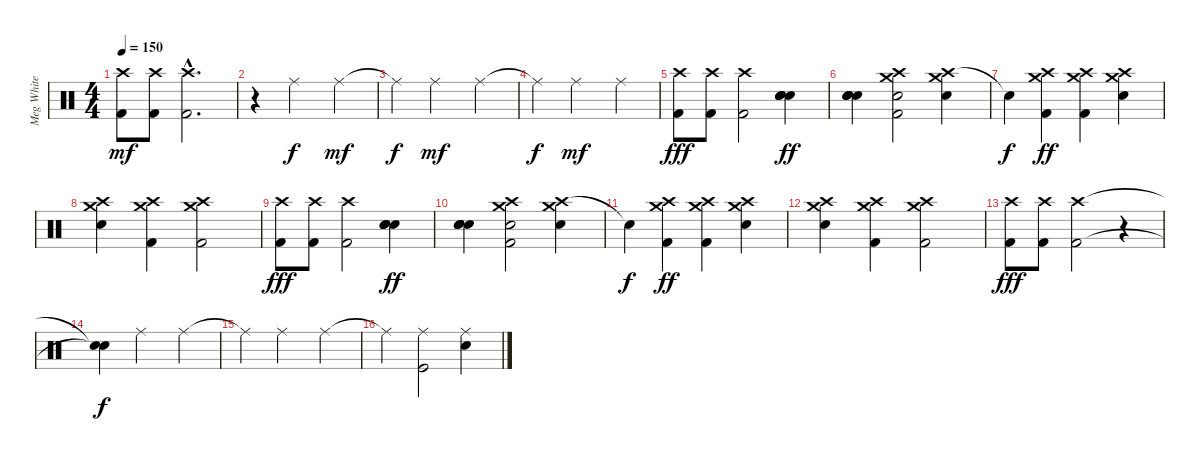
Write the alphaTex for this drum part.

\track ("Meg White" "Meg White") {instrument percussion}
\staff {score}
\articulation defaults
\ts (4 4)
\tempo 150
\clef neutral
\ks c
("Crash high (hit)" "Kick (hit) 2").8{dy mf} ("Crash high (hit)" "Kick (hit) 2").8 ("Crash high (hit)"{hac} "Kick (hit) 2"{hac}).2{d} |
r.4 "Ride (middle)".2{dy f} "Ride (middle)".4{dy mf} |
"Ride (middle)"{t}.4{dy f} "Ride (middle)".2{dy mf} "Ride (middle)".4 |
"Ride (middle)"{t}.4{dy f} "Ride (middle)".2{dy mf} "Ride (middle)".4 |
("Crash high (hit)" "Kick (hit) 2").8{dy fff} ("Crash high (hit)" "Kick (hit) 2").8 ("Crash high (hit)" "Kick (hit) 2").2 ("Snare (hit) 2" "Snare (hit) 2" "Electric Snare (hit)" "Electric Snare (hit)").4{dy ff} |
("Snare (hit) 2" "Snare (hit) 2" "Electric Snare (hit)" "Electric Snare (hit)").4 ("Crash high (hit)" "Crash medium (hit)" "Kick (hit) 2" "Electric Snare (hit)").2 ("Crash high (hit)" "Crash medium (hit)" "Electric Snare (hit)").4 |
"Snare (hit)"{t}.4{dy f} ("Crash high (hit)" "Crash medium (hit)" "Kick (hit) 2").4{dy ff} ("Crash high (hit)" "Crash medium (hit)" "Kick (hit) 2").4 ("Crash high (hit)" "Crash medium (hit)" "Electric Snare (hit)").4 |
("Crash high (hit)" "Crash medium (hit)" "Electric Snare (hit)").4 ("Crash high (hit)" "Crash medium (hit)" "Kick (hit) 2").4 ("Crash high (hit)" "Crash medium (hit)" "Kick (hit) 2").2 |
("Crash high (hit)" "Kick (hit) 2").8{dy fff} ("Crash high (hit)" "Kick (hit) 2").8 ("Crash high (hit)" "Kick (hit) 2").2 ("Snare (hit) 2" "Snare (hit) 2" "Electric Snare (hit)" "Electric Snare (hit)").4{dy ff} |
("Snare (hit) 2" "Snare (hit) 2" "Electric Snare (hit)" "Electric Snare (hit)").4 ("Crash high (hit)" "Crash medium (hit)" "Kick (hit) 2" "Electric Snare (hit)").2 ("Crash high (hit)" "Crash medium (hit)" "Electric Snare (hit)").4 |
"Snare (hit)"{t}.4{dy f} ("Crash high (hit)" "Crash medium (hit)" "Kick (hit) 2").4{dy ff} ("Crash high (hit)" "Crash medium (hit)" "Kick (hit) 2").4 ("Crash high (hit)" "Crash medium (hit)" "Electric Snare (hit)").4 |
("Crash high (hit)" "Crash medium (hit)" "Electric Snare (hit)").4 ("Crash high (hit)" "Crash medium (hit)" "Kick (hit) 2").4 ("Crash high (hit)" "Crash medium (hit)" "Kick (hit) 2").2 |
("Crash high (hit)" "Kick (hit) 2").8{dy fff} ("Crash high (hit)" "Kick (hit) 2").8 ("Crash high (hit)" "Kick (hit) 2").2 r.4 |
("Snare (hit)"{t} "Snare (hit)"{t}).4{dy f} "Ride (middle)".2 "Ride (middle)".4 |
"Ride (middle)"{t}.4 "Ride (middle)".2 "Ride (middle)".4 |
"Ride (middle)"{t}.4 ("Ride (middle)" "Kick (hit)").2 ("Ride (middle)" "Electric Snare (hit)").4
